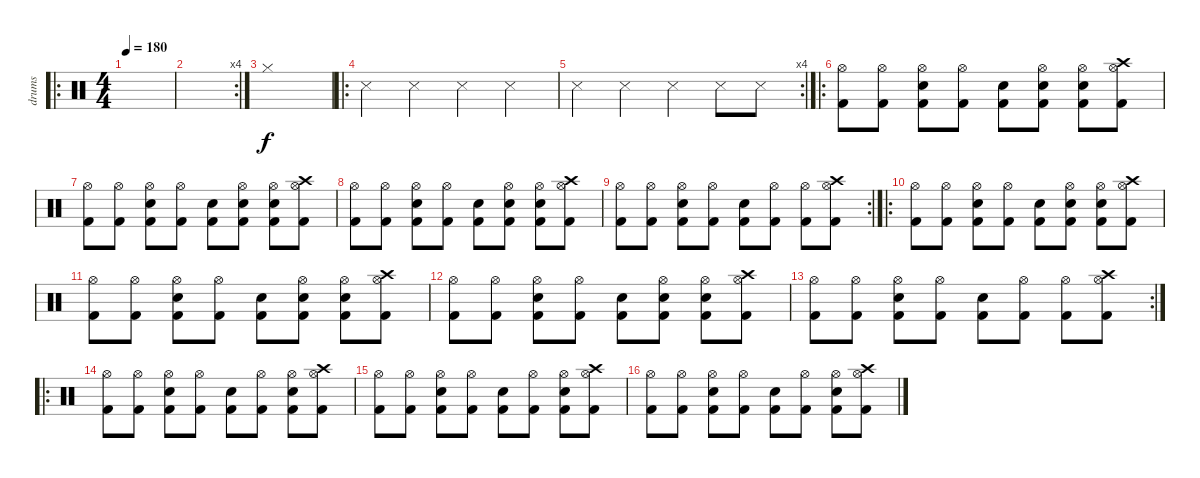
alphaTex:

\track ("drums" "drums") {instrument percussion}
\staff {score}
\articulation defaults
\ro
\ts (4 4)
\tempo 180
\clef neutral
\ks c
|
\rc 4
|
"Hi-Hat (closed)".1 |
\ro "Snare (side stick) 3".4 "Snare (side stick) 3".4 "Snare (side stick) 3".4 "Snare (side stick) 3".4
|
\rc 4 "Snare (side stick) 3".4 "Snare (side stick) 3".4 "Snare (side stick) 3".4 "Snare (side stick) 3".8 "Snare (side stick) 3".8
|
\ro
("Hi-Hat (open)" "Kick (hit) 2").8 ("Hi-Hat (open)" "Kick (hit) 2").8 ("Snare (hit) 2" "Hi-Hat (open)" "Kick (hit) 2").8 ("Hi-Hat (open)" "Kick (hit) 2").8 ("Snare (hit) 2" "Kick (hit) 2").8 ("Snare (hit) 2" "Hi-Hat (open)" "Kick (hit) 2").8 ("Snare (hit) 2" "Hi-Hat (open)" "Kick (hit) 2").8 ("Crash high (hit)" "Hi-Hat (open)" "Kick (hit) 2").8 |
("Hi-Hat (open)" "Kick (hit) 2").8 ("Hi-Hat (open)" "Kick (hit) 2").8 ("Snare (hit) 2" "Hi-Hat (open)" "Kick (hit) 2").8 ("Hi-Hat (open)" "Kick (hit) 2").8 ("Snare (hit) 2" "Kick (hit) 2").8 ("Snare (hit) 2" "Hi-Hat (open)" "Kick (hit) 2").8 ("Snare (hit) 2" "Hi-Hat (open)" "Kick (hit) 2").8 ("Crash high (hit)" "Hi-Hat (open)" "Kick (hit) 2").8 |
("Hi-Hat (open)" "Kick (hit) 2").8 ("Hi-Hat (open)" "Kick (hit) 2").8 ("Snare (hit) 2" "Hi-Hat (open)" "Kick (hit) 2").8 ("Hi-Hat (open)" "Kick (hit) 2").8 ("Snare (hit) 2" "Kick (hit) 2").8 ("Snare (hit) 2" "Hi-Hat (open)" "Kick (hit) 2").8 ("Snare (hit) 2" "Hi-Hat (open)" "Kick (hit) 2").8 ("Crash high (hit)" "Hi-Hat (open)" "Kick (hit) 2").8 |
\rc 2
("Hi-Hat (open)" "Kick (hit) 2").8 ("Hi-Hat (open)" "Kick (hit) 2").8 ("Snare (hit) 2" "Hi-Hat (open)" "Kick (hit) 2").8 ("Hi-Hat (open)" "Kick (hit) 2").8 ("Snare (hit) 2" "Kick (hit) 2").8 ("Hi-Hat (open)" "Kick (hit) 2").8 ("Hi-Hat (open)" "Kick (hit) 2").8 ("Crash high (hit)" "Hi-Hat (open)" "Kick (hit) 2").8 |
\ro
("Hi-Hat (open)" "Kick (hit) 2").8 ("Hi-Hat (open)" "Kick (hit) 2").8 ("Snare (hit) 2" "Hi-Hat (open)" "Kick (hit) 2").8 ("Hi-Hat (open)" "Kick (hit) 2").8 ("Snare (hit) 2" "Kick (hit) 2").8 ("Snare (hit) 2" "Hi-Hat (open)" "Kick (hit) 2").8 ("Snare (hit) 2" "Hi-Hat (open)" "Kick (hit) 2").8 ("Crash high (hit)" "Hi-Hat (open)" "Kick (hit) 2").8 |
("Hi-Hat (open)" "Kick (hit) 2").8 ("Hi-Hat (open)" "Kick (hit) 2").8 ("Snare (hit) 2" "Hi-Hat (open)" "Kick (hit) 2").8 ("Hi-Hat (open)" "Kick (hit) 2").8 ("Snare (hit) 2" "Kick (hit) 2").8 ("Snare (hit) 2" "Hi-Hat (open)" "Kick (hit) 2").8 ("Snare (hit) 2" "Hi-Hat (open)" "Kick (hit) 2").8 ("Crash high (hit)" "Hi-Hat (open)" "Kick (hit) 2").8 |
("Hi-Hat (open)" "Kick (hit) 2").8 ("Hi-Hat (open)" "Kick (hit) 2").8 ("Snare (hit) 2" "Hi-Hat (open)" "Kick (hit) 2").8 ("Hi-Hat (open)" "Kick (hit) 2").8 ("Snare (hit) 2" "Kick (hit) 2").8 ("Snare (hit) 2" "Hi-Hat (open)" "Kick (hit) 2").8 ("Snare (hit) 2" "Hi-Hat (open)" "Kick (hit) 2").8 ("Crash high (hit)" "Hi-Hat (open)" "Kick (hit) 2").8 |
\rc 2
("Hi-Hat (open)" "Kick (hit) 2").8 ("Hi-Hat (open)" "Kick (hit) 2").8 ("Snare (hit) 2" "Hi-Hat (open)" "Kick (hit) 2").8 ("Hi-Hat (open)" "Kick (hit) 2").8 ("Snare (hit) 2" "Kick (hit) 2").8 ("Hi-Hat (open)" "Kick (hit) 2").8 ("Hi-Hat (open)" "Kick (hit) 2").8 ("Crash high (hit)" "Hi-Hat (open)" "Kick (hit) 2").8 |
\ro
("Hi-Hat (open)" "Kick (hit) 2").8 ("Hi-Hat (open)" "Kick (hit) 2").8 ("Snare (hit) 2" "Hi-Hat (open)" "Kick (hit) 2").8 ("Hi-Hat (open)" "Kick (hit) 2").8 ("Snare (hit) 2" "Kick (hit) 2").8 ("Hi-Hat (open)" "Kick (hit) 2").8 ("Snare (hit) 2" "Hi-Hat (open)" "Kick (hit) 2").8 ("Crash high (hit)" "Hi-Hat (open)" "Kick (hit) 2").8 |
("Hi-Hat (open)" "Kick (hit) 2").8 ("Hi-Hat (open)" "Kick (hit) 2").8 ("Snare (hit) 2" "Hi-Hat (open)" "Kick (hit) 2").8 ("Hi-Hat (open)" "Kick (hit) 2").8 ("Snare (hit) 2" "Kick (hit) 2").8 ("Hi-Hat (open)" "Kick (hit) 2").8 ("Snare (hit) 2" "Hi-Hat (open)" "Kick (hit) 2").8 ("Crash high (hit)" "Hi-Hat (open)" "Kick (hit) 2").8 |
("Hi-Hat (open)" "Kick (hit) 2").8 ("Hi-Hat (open)" "Kick (hit) 2").8 ("Snare (hit) 2" "Hi-Hat (open)" "Kick (hit) 2").8 ("Hi-Hat (open)" "Kick (hit) 2").8 ("Snare (hit) 2" "Kick (hit) 2").8 ("Hi-Hat (open)" "Kick (hit) 2").8 ("Snare (hit) 2" "Hi-Hat (open)" "Kick (hit) 2").8 ("Crash high (hit)" "Hi-Hat (open)" "Kick (hit) 2").8
